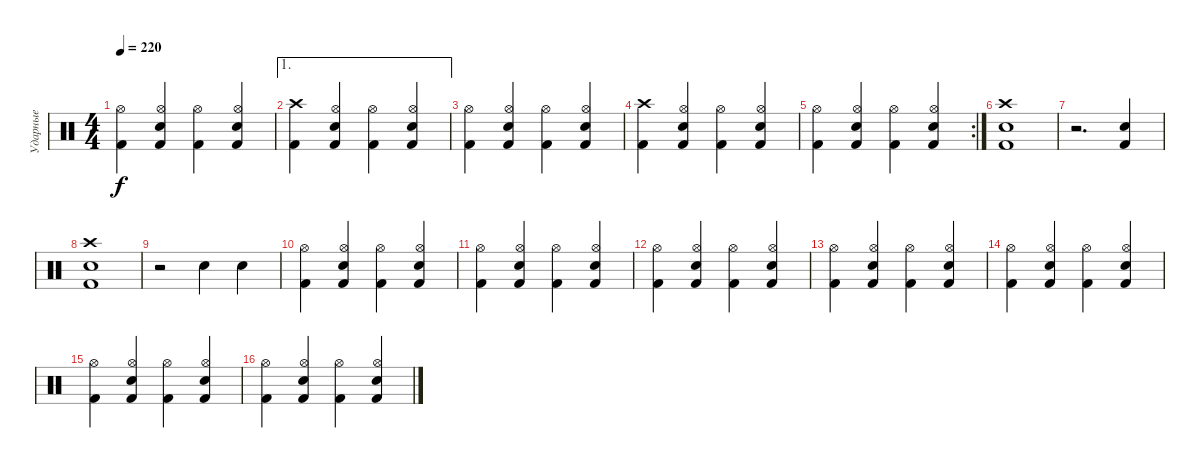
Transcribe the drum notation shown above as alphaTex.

\track ("Ударные" "Ударные") {instrument percussion}
\staff
\articulation defaults
\ts (4 4)
\tempo 220
\clef neutral
\ks c
("Kick (hit) 2" "Hi-Hat (open)").4{dy f} ("Kick (hit) 2" "Snare (hit) 2" "Hi-Hat (open)").4 ("Kick (hit) 2" "Hi-Hat (open)").4 ("Kick (hit) 2" "Snare (hit) 2" "Hi-Hat (open)").4 |
\ae 1
("Kick (hit) 2" "Crash high (hit)").4 ("Kick (hit) 2" "Snare (hit) 2" "Hi-Hat (open)").4 ("Kick (hit) 2" "Hi-Hat (open)").4 ("Kick (hit) 2" "Snare (hit) 2" "Hi-Hat (open)").4 |
("Kick (hit) 2" "Hi-Hat (open)").4 ("Kick (hit) 2" "Snare (hit) 2" "Hi-Hat (open)").4 ("Kick (hit) 2" "Hi-Hat (open)").4 ("Kick (hit) 2" "Snare (hit) 2" "Hi-Hat (open)").4 |
("Kick (hit) 2" "Crash high (hit)").4 ("Kick (hit) 2" "Snare (hit) 2" "Hi-Hat (open)").4 ("Kick (hit) 2" "Hi-Hat (open)").4 ("Kick (hit) 2" "Snare (hit) 2" "Hi-Hat (open)").4 |
\rc 2
("Kick (hit) 2" "Hi-Hat (open)").4 ("Kick (hit) 2" "Snare (hit) 2" "Hi-Hat (open)").4 ("Kick (hit) 2" "Hi-Hat (open)").4 ("Kick (hit) 2" "Snare (hit) 2" "Hi-Hat (open)").4 |
("Kick (hit) 2" "Snare (hit) 2" "Crash high (hit)").1 |
r.2{d} ("Kick (hit) 2" "Snare (hit) 2").4 |
("Kick (hit) 2" "Snare (hit) 2" "Crash high (hit)").1 |
r.2 "Snare (hit) 2".4 "Snare (hit) 2".4 |
("Kick (hit) 2" "Hi-Hat (open)").4 ("Kick (hit) 2" "Snare (hit) 2" "Hi-Hat (open)").4 ("Kick (hit) 2" "Hi-Hat (open)").4 ("Kick (hit) 2" "Snare (hit) 2" "Hi-Hat (open)").4 |
("Kick (hit) 2" "Hi-Hat (open)").4 ("Kick (hit) 2" "Snare (hit) 2" "Hi-Hat (open)").4 ("Kick (hit) 2" "Hi-Hat (open)").4 ("Kick (hit) 2" "Snare (hit) 2" "Hi-Hat (open)").4 |
("Kick (hit) 2" "Hi-Hat (open)").4 ("Kick (hit) 2" "Snare (hit) 2" "Hi-Hat (open)").4 ("Kick (hit) 2" "Hi-Hat (open)").4 ("Kick (hit) 2" "Snare (hit) 2" "Hi-Hat (open)").4 |
("Kick (hit) 2" "Hi-Hat (open)").4 ("Kick (hit) 2" "Snare (hit) 2" "Hi-Hat (open)").4 ("Kick (hit) 2" "Hi-Hat (open)").4 ("Kick (hit) 2" "Snare (hit) 2" "Hi-Hat (open)").4 |
("Kick (hit) 2" "Hi-Hat (open)").4 ("Kick (hit) 2" "Snare (hit) 2" "Hi-Hat (open)").4 ("Kick (hit) 2" "Hi-Hat (open)").4 ("Kick (hit) 2" "Snare (hit) 2" "Hi-Hat (open)").4 |
("Kick (hit) 2" "Hi-Hat (open)").4 ("Kick (hit) 2" "Snare (hit) 2" "Hi-Hat (open)").4 ("Kick (hit) 2" "Hi-Hat (open)").4 ("Kick (hit) 2" "Snare (hit) 2" "Hi-Hat (open)").4 |
("Kick (hit) 2" "Hi-Hat (open)").4 ("Kick (hit) 2" "Snare (hit) 2" "Hi-Hat (open)").4 ("Kick (hit) 2" "Hi-Hat (open)").4 ("Kick (hit) 2" "Snare (hit) 2" "Hi-Hat (open)").4
